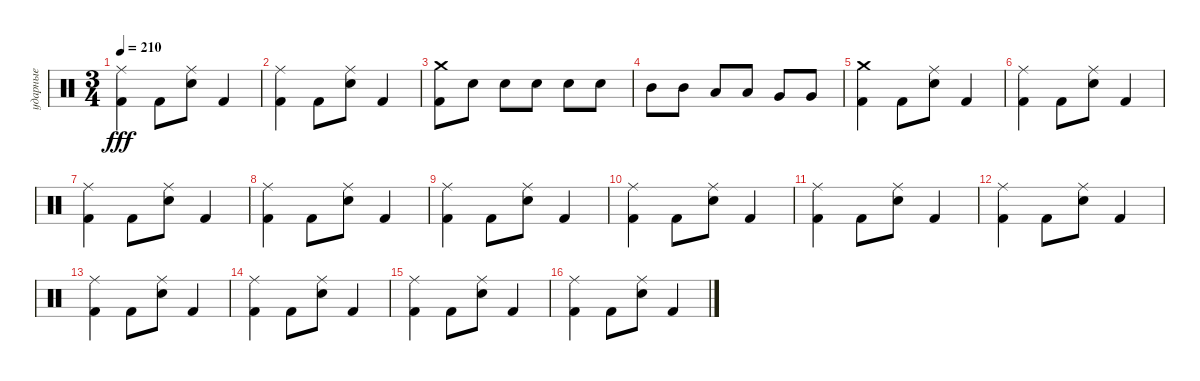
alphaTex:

\track ("ударные" "ударные") {instrument percussion}
\staff {score}
\articulation defaults
\ts (3 4)
\tempo 210
\clef neutral
\ks c
("Ride (middle)" "Kick (hit) 2").4{dy fff} "Kick (hit) 2".8 ("Ride (middle)" "Snare (hit) 2").8 "Kick (hit) 2".4 |
("Ride (middle)" "Kick (hit) 2").4 "Kick (hit) 2".8 ("Ride (middle)" "Snare (hit) 2").8 "Kick (hit) 2".4 |
("Crash medium (hit)" "Kick (hit) 2").8 "Snare (hit) 2".8 "Snare (hit) 2".8 "Snare (hit) 2".8 "Snare (hit) 2".8 "Snare (hit) 2".8 |
"Mid Tom (hit)".8 "Mid Tom (hit)".8 "Low Tom (hit)".8 "Low Tom (hit)".8 "Very Low Tom (hit)".8 "Very Low Tom (hit)".8 |
("Crash medium (hit)" "Kick (hit) 2").4 "Kick (hit) 2".8 ("Ride (middle)" "Snare (hit) 2").8 "Kick (hit) 2".4 |
("Ride (middle)" "Kick (hit) 2").4 "Kick (hit) 2".8 ("Ride (middle)" "Snare (hit) 2").8 "Kick (hit) 2".4 |
("Ride (middle)" "Kick (hit) 2").4 "Kick (hit) 2".8 ("Ride (middle)" "Snare (hit) 2").8 "Kick (hit) 2".4 |
("Ride (middle)" "Kick (hit) 2").4 "Kick (hit) 2".8 ("Ride (middle)" "Snare (hit) 2").8 "Kick (hit) 2".4 |
("Ride (middle)" "Kick (hit) 2").4 "Kick (hit) 2".8 ("Ride (middle)" "Snare (hit) 2").8 "Kick (hit) 2".4 |
("Ride (middle)" "Kick (hit) 2").4 "Kick (hit) 2".8 ("Ride (middle)" "Snare (hit) 2").8 "Kick (hit) 2".4 |
("Ride (middle)" "Kick (hit) 2").4 "Kick (hit) 2".8 ("Ride (middle)" "Snare (hit) 2").8 "Kick (hit) 2".4 |
("Ride (middle)" "Kick (hit) 2").4 "Kick (hit) 2".8 ("Ride (middle)" "Snare (hit) 2").8 "Kick (hit) 2".4 |
("Ride (middle)" "Kick (hit) 2").4 "Kick (hit) 2".8 ("Ride (middle)" "Snare (hit) 2").8 "Kick (hit) 2".4 |
("Ride (middle)" "Kick (hit) 2").4 "Kick (hit) 2".8 ("Ride (middle)" "Snare (hit) 2").8 "Kick (hit) 2".4 |
("Ride (middle)" "Kick (hit) 2").4 "Kick (hit) 2".8 ("Ride (middle)" "Snare (hit) 2").8 "Kick (hit) 2".4 |
("Ride (middle)" "Kick (hit) 2").4 "Kick (hit) 2".8 ("Ride (middle)" "Snare (hit) 2").8 "Kick (hit) 2".4
